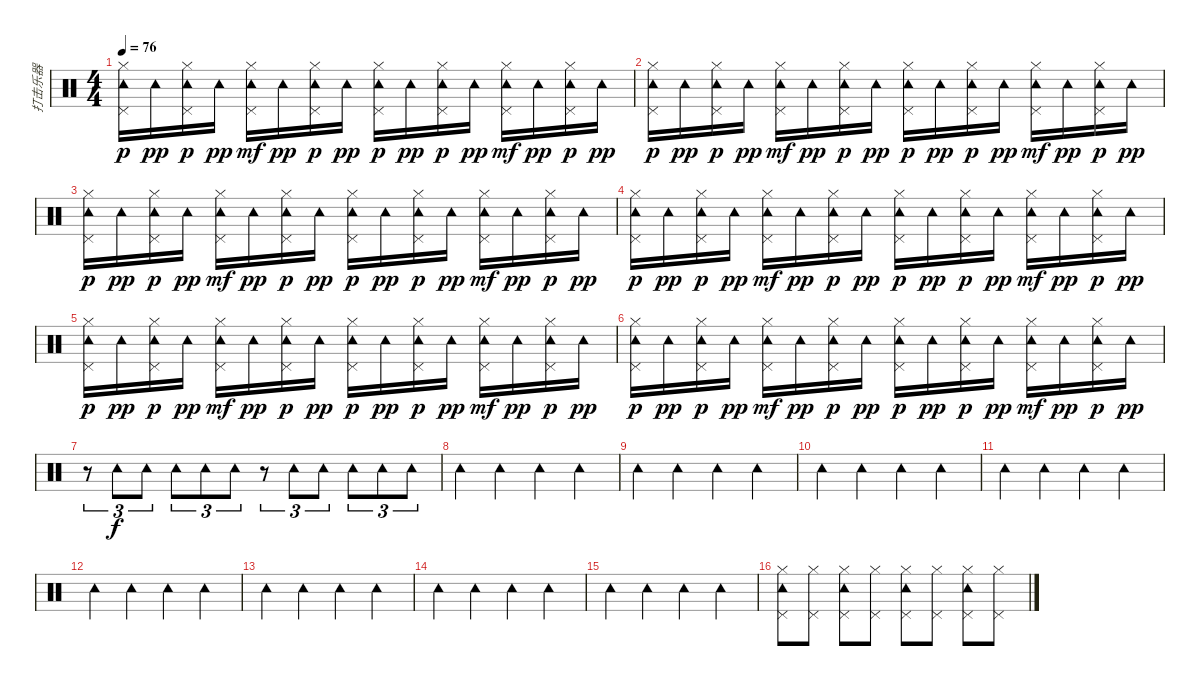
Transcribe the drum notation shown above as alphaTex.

\track ("打击乐器" "打击乐器") {instrument percussion}
\staff {score}
\articulation defaults
\ts (4 4)
\tempo 76
\clef neutral
\ks c
("Tambourine (hit)" "Pedal Hi-Hat (hit)" "Hi-Hat (closed)").16{dy p} "Tambourine (hit)".16{dy pp} ("Tambourine (hit)" "Pedal Hi-Hat (hit)" "Hi-Hat (closed)").16{dy p} "Tambourine (hit)".16{dy pp} ("Tambourine (hit)" "Pedal Hi-Hat (hit)" "Hi-Hat (closed)").16{dy mf} "Tambourine (hit)".16{dy pp} ("Tambourine (hit)" "Pedal Hi-Hat (hit)" "Hi-Hat (closed)").16{dy p} "Tambourine (hit)".16{dy pp} ("Tambourine (hit)" "Pedal Hi-Hat (hit)" "Hi-Hat (closed)").16{dy p} "Tambourine (hit)".16{dy pp} ("Tambourine (hit)" "Pedal Hi-Hat (hit)" "Hi-Hat (closed)").16{dy p} "Tambourine (hit)".16{dy pp} ("Tambourine (hit)" "Pedal Hi-Hat (hit)" "Hi-Hat (closed)").16{dy mf} "Tambourine (hit)".16{dy pp} ("Tambourine (hit)" "Pedal Hi-Hat (hit)" "Hi-Hat (closed)").16{dy p} "Tambourine (hit)".16{dy pp} |
("Tambourine (hit)" "Pedal Hi-Hat (hit)" "Hi-Hat (closed)").16{dy p} "Tambourine (hit)".16{dy pp} ("Tambourine (hit)" "Pedal Hi-Hat (hit)" "Hi-Hat (closed)").16{dy p} "Tambourine (hit)".16{dy pp} ("Tambourine (hit)" "Pedal Hi-Hat (hit)" "Hi-Hat (closed)").16{dy mf} "Tambourine (hit)".16{dy pp} ("Tambourine (hit)" "Pedal Hi-Hat (hit)" "Hi-Hat (closed)").16{dy p} "Tambourine (hit)".16{dy pp} ("Tambourine (hit)" "Pedal Hi-Hat (hit)" "Hi-Hat (closed)").16{dy p} "Tambourine (hit)".16{dy pp} ("Tambourine (hit)" "Pedal Hi-Hat (hit)" "Hi-Hat (closed)").16{dy p} "Tambourine (hit)".16{dy pp} ("Tambourine (hit)" "Pedal Hi-Hat (hit)" "Hi-Hat (closed)").16{dy mf} "Tambourine (hit)".16{dy pp} ("Tambourine (hit)" "Pedal Hi-Hat (hit)" "Hi-Hat (closed)").16{dy p} "Tambourine (hit)".16{dy pp} |
("Tambourine (hit)" "Pedal Hi-Hat (hit)" "Hi-Hat (closed)").16{dy p} "Tambourine (hit)".16{dy pp} ("Tambourine (hit)" "Pedal Hi-Hat (hit)" "Hi-Hat (closed)").16{dy p} "Tambourine (hit)".16{dy pp} ("Tambourine (hit)" "Pedal Hi-Hat (hit)" "Hi-Hat (closed)").16{dy mf} "Tambourine (hit)".16{dy pp} ("Tambourine (hit)" "Pedal Hi-Hat (hit)" "Hi-Hat (closed)").16{dy p} "Tambourine (hit)".16{dy pp} ("Tambourine (hit)" "Pedal Hi-Hat (hit)" "Hi-Hat (closed)").16{dy p} "Tambourine (hit)".16{dy pp} ("Tambourine (hit)" "Pedal Hi-Hat (hit)" "Hi-Hat (closed)").16{dy p} "Tambourine (hit)".16{dy pp} ("Tambourine (hit)" "Pedal Hi-Hat (hit)" "Hi-Hat (closed)").16{dy mf} "Tambourine (hit)".16{dy pp} ("Tambourine (hit)" "Pedal Hi-Hat (hit)" "Hi-Hat (closed)").16{dy p} "Tambourine (hit)".16{dy pp} |
("Tambourine (hit)" "Pedal Hi-Hat (hit)" "Hi-Hat (closed)").16{dy p} "Tambourine (hit)".16{dy pp} ("Tambourine (hit)" "Pedal Hi-Hat (hit)" "Hi-Hat (closed)").16{dy p} "Tambourine (hit)".16{dy pp} ("Tambourine (hit)" "Pedal Hi-Hat (hit)" "Hi-Hat (closed)").16{dy mf} "Tambourine (hit)".16{dy pp} ("Tambourine (hit)" "Pedal Hi-Hat (hit)" "Hi-Hat (closed)").16{dy p} "Tambourine (hit)".16{dy pp} ("Tambourine (hit)" "Pedal Hi-Hat (hit)" "Hi-Hat (closed)").16{dy p} "Tambourine (hit)".16{dy pp} ("Tambourine (hit)" "Pedal Hi-Hat (hit)" "Hi-Hat (closed)").16{dy p} "Tambourine (hit)".16{dy pp} ("Tambourine (hit)" "Pedal Hi-Hat (hit)" "Hi-Hat (closed)").16{dy mf} "Tambourine (hit)".16{dy pp} ("Tambourine (hit)" "Pedal Hi-Hat (hit)" "Hi-Hat (closed)").16{dy p} "Tambourine (hit)".16{dy pp} |
("Tambourine (hit)" "Pedal Hi-Hat (hit)" "Hi-Hat (closed)").16{dy p} "Tambourine (hit)".16{dy pp} ("Tambourine (hit)" "Pedal Hi-Hat (hit)" "Hi-Hat (closed)").16{dy p} "Tambourine (hit)".16{dy pp} ("Tambourine (hit)" "Pedal Hi-Hat (hit)" "Hi-Hat (closed)").16{dy mf} "Tambourine (hit)".16{dy pp} ("Tambourine (hit)" "Pedal Hi-Hat (hit)" "Hi-Hat (closed)").16{dy p} "Tambourine (hit)".16{dy pp} ("Tambourine (hit)" "Pedal Hi-Hat (hit)" "Hi-Hat (closed)").16{dy p} "Tambourine (hit)".16{dy pp} ("Tambourine (hit)" "Pedal Hi-Hat (hit)" "Hi-Hat (closed)").16{dy p} "Tambourine (hit)".16{dy pp} ("Tambourine (hit)" "Pedal Hi-Hat (hit)" "Hi-Hat (closed)").16{dy mf} "Tambourine (hit)".16{dy pp} ("Tambourine (hit)" "Pedal Hi-Hat (hit)" "Hi-Hat (closed)").16{dy p} "Tambourine (hit)".16{dy pp} |
("Tambourine (hit)" "Pedal Hi-Hat (hit)" "Hi-Hat (closed)").16{dy p} "Tambourine (hit)".16{dy pp} ("Tambourine (hit)" "Pedal Hi-Hat (hit)" "Hi-Hat (closed)").16{dy p} "Tambourine (hit)".16{dy pp} ("Tambourine (hit)" "Pedal Hi-Hat (hit)" "Hi-Hat (closed)").16{dy mf} "Tambourine (hit)".16{dy pp} ("Tambourine (hit)" "Pedal Hi-Hat (hit)" "Hi-Hat (closed)").16{dy p} "Tambourine (hit)".16{dy pp} ("Tambourine (hit)" "Pedal Hi-Hat (hit)" "Hi-Hat (closed)").16{dy p} "Tambourine (hit)".16{dy pp} ("Tambourine (hit)" "Pedal Hi-Hat (hit)" "Hi-Hat (closed)").16{dy p} "Tambourine (hit)".16{dy pp} ("Tambourine (hit)" "Pedal Hi-Hat (hit)" "Hi-Hat (closed)").16{dy mf} "Tambourine (hit)".16{dy pp} ("Tambourine (hit)" "Pedal Hi-Hat (hit)" "Hi-Hat (closed)").16{dy p} "Tambourine (hit)".16{dy pp} |
r.8{tu (3 2)} "Tambourine (hit)".8{tu (3 2) dy f} "Tambourine (hit)".8{tu (3 2)} "Tambourine (hit)".8{tu (3 2)} "Tambourine (hit)".8{tu (3 2)} "Tambourine (hit)".8{tu (3 2)} r.8{tu (3 2)} "Tambourine (hit)".8{tu (3 2)} "Tambourine (hit)".8{tu (3 2)} "Tambourine (hit)".8{tu (3 2)} "Tambourine (hit)".8{tu (3 2)} "Tambourine (hit)".8{tu (3 2)} |
"Tambourine (hit)".4 "Tambourine (hit)".4 "Tambourine (hit)".4 "Tambourine (hit)".4 |
"Tambourine (hit)".4 "Tambourine (hit)".4 "Tambourine (hit)".4 "Tambourine (hit)".4 |
"Tambourine (hit)".4 "Tambourine (hit)".4 "Tambourine (hit)".4 "Tambourine (hit)".4 |
"Tambourine (hit)".4 "Tambourine (hit)".4 "Tambourine (hit)".4 "Tambourine (hit)".4 |
"Tambourine (hit)".4 "Tambourine (hit)".4 "Tambourine (hit)".4 "Tambourine (hit)".4 |
"Tambourine (hit)".4 "Tambourine (hit)".4 "Tambourine (hit)".4 "Tambourine (hit)".4 |
"Tambourine (hit)".4 "Tambourine (hit)".4 "Tambourine (hit)".4 "Tambourine (hit)".4 |
"Tambourine (hit)".4 "Tambourine (hit)".4 "Tambourine (hit)".4 "Tambourine (hit)".4 |
("Tambourine (hit)" "Pedal Hi-Hat (hit)" "Hi-Hat (closed)").8 ("Pedal Hi-Hat (hit)" "Hi-Hat (closed)").8 ("Tambourine (hit)" "Pedal Hi-Hat (hit)" "Hi-Hat (closed)").8 ("Pedal Hi-Hat (hit)" "Hi-Hat (closed)").8 ("Tambourine (hit)" "Pedal Hi-Hat (hit)" "Hi-Hat (closed)").8 ("Pedal Hi-Hat (hit)" "Hi-Hat (closed)").8 ("Tambourine (hit)" "Pedal Hi-Hat (hit)" "Hi-Hat (closed)").8 ("Pedal Hi-Hat (hit)" "Hi-Hat (closed)").8
